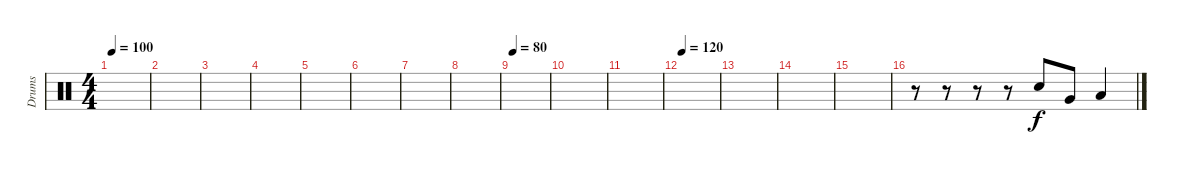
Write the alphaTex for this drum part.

\track ("Drums" "Drums") {instrument percussion}
\staff {score}
\articulation defaults
\ts (4 4)
\tempo 100
\clef neutral
\ks c
|
|
|
|
|
|
|
|
\tempo 80
|
|
|
\tempo 120
|
|
|
|
r.8 r.8 r.8 r.8 "Snare (hit) 2".8 "Very Low Tom (hit)".8 "Low Floor Tom (hit)".4
